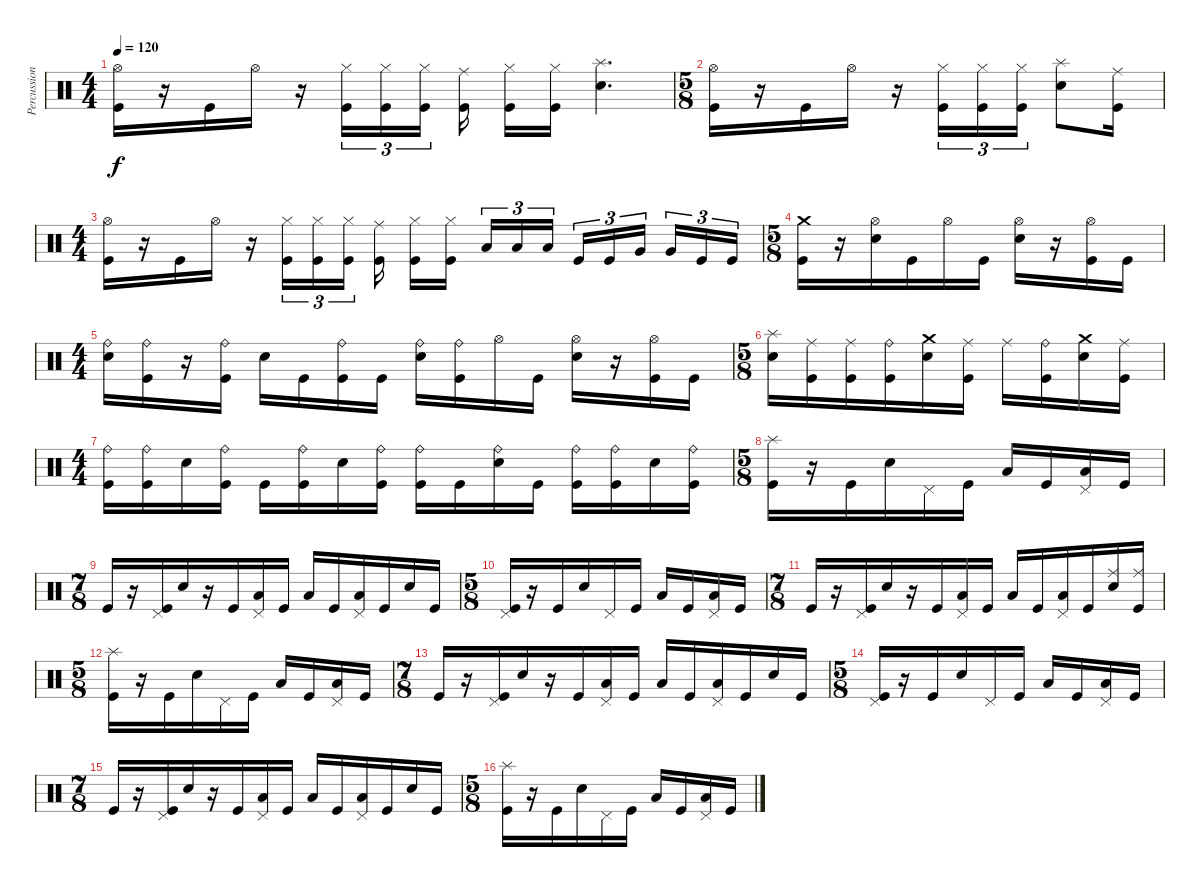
\track ("Percussion" "Percussion") {instrument percussion}
\staff {score}
\articulation defaults
\ts (4 4)
\tempo 120
\clef neutral
\ks c
("Hi-Hat (open)" "Kick (hit)").16{dy f} r.16 "Kick (hit)".16 "Hi-Hat (open)".16 r.16 ("Hi-Hat (closed)" "Kick (hit)").16{tu (3 2)} ("Hi-Hat (closed)" "Kick (hit)").16{tu (3 2)} ("Hi-Hat (closed)" "Kick (hit)").16{tu (3 2) beam splitsecondary} ("Ride (middle)" "Kick (hit)").16 ("Hi-Hat (closed)" "Kick (hit)").16 ("Hi-Hat (closed)" "Kick (hit)").16 ("Splash (hit)" "Electric Snare (hit)").4{d} |
\ts (5 8)
("Hi-Hat (open)" "Kick (hit)").16 r.16 "Kick (hit)".16 "Hi-Hat (open)".16 r.16 ("Hi-Hat (closed)" "Kick (hit)").16{tu (3 2)} ("Hi-Hat (closed)" "Kick (hit)").16{tu (3 2)} ("Hi-Hat (closed)" "Kick (hit)").16{tu (3 2)} ("Splash (hit)" "Electric Snare (hit)").8 ("Ride (middle)" "Kick (hit)").16 |
\ts (4 4)
("Hi-Hat (open)" "Kick (hit)").16 r.16 "Kick (hit)".16 "Hi-Hat (open)".16 r.16 ("Hi-Hat (closed)" "Kick (hit)").16{tu (3 2)} ("Hi-Hat (closed)" "Kick (hit)").16{tu (3 2)} ("Hi-Hat (closed)" "Kick (hit)").16{tu (3 2) beam splitsecondary} ("Ride (middle)" "Kick (hit)").16 ("Hi-Hat (closed)" "Kick (hit)").16 ("Hi-Hat (closed)" "Kick (hit)").16{beam splitsecondary} "Low Tom (hit)".16{tu (3 2)} "Low Tom (hit)".16{tu (3 2)} "Low Tom (hit)".16{tu (3 2)} "Kick (hit)".16{tu (3 2)} "Kick (hit)".16{tu (3 2)} "Very Low Tom (hit)".16{tu (3 2) beam splitsecondary} "Very Low Tom (hit)".16{tu (3 2)} "Kick (hit)".16{tu (3 2)} "Kick (hit)".16{tu (3 2)} |
\ts (5 8)
("Crash medium (hit)" "Kick (hit)").16 r.16 ("Hi-Hat (open)" "Electric Snare (hit)").16 "Kick (hit)".16 "Hi-Hat (open)".16 "Kick (hit)".16 ("Hi-Hat (open)" "Electric Snare (hit)").16 r.16 ("Hi-Hat (open)" "Kick (hit)").16 "Kick (hit)".16 |
\ts (4 4)
("Ride (bell)" "Electric Snare (hit)").16 ("Ride (bell)" "Kick (hit)").16 r.16 ("Ride (bell)" "Kick (hit)").16 "Electric Snare (hit)".16 "Kick (hit)".16 ("Ride (bell)" "Kick (hit)").16 "Kick (hit)".16 ("Ride (bell)" "Electric Snare (hit)").16 ("Ride (bell)" "Kick (hit)").16 "Hi-Hat (open)".16 "Kick (hit)".16 ("Hi-Hat (open)" "Electric Snare (hit)").16 r.16 ("Hi-Hat (open)" "Kick (hit)").16 "Kick (hit)".16 |
\ts (5 8)
("Splash (hit)" "Electric Snare (hit)").16 ("Ride (middle)" "Kick (hit)").16 ("Ride (middle)" "Kick (hit)").16 ("Ride (bell)" "Kick (hit)").16 ("Crash medium (hit)" "Electric Snare (hit)").16 ("Ride (middle)" "Kick (hit)").16 "Ride (middle)".16 ("Ride (bell)" "Kick (hit)").16 ("Crash medium (hit)" "Electric Snare (hit)").16 ("Ride (middle)" "Kick (hit)").16 |
\ts (4 4)
("Ride (bell)" "Kick (hit)").16 ("Ride (bell)" "Kick (hit)").16 "Electric Snare (hit)".16 ("Ride (bell)" "Kick (hit)").16 "Kick (hit)".16 ("Ride (bell)" "Kick (hit)").16 "Electric Snare (hit)".16 ("Ride (bell)" "Kick (hit)").16 ("Ride (bell)" "Kick (hit)").16 "Kick (hit)".16 ("Ride (bell)" "Electric Snare (hit)").16 "Kick (hit)".16 ("Ride (bell)" "Kick (hit)").16 ("Ride (bell)" "Kick (hit)").16 "Electric Snare (hit)".16 ("Ride (bell)" "Kick (hit)").16 |
\ts (5 8)
("Splash (hit)" "Kick (hit)").16 r.16 "Kick (hit)".16 "Electric Snare (hit)".16 "Pedal Hi-Hat (hit)".16 "Kick (hit)".16 "Low Tom (hit)".16 "Kick (hit)".16 ("Pedal Hi-Hat (hit)" "Low Tom (hit)").16 "Kick (hit)".16 |
\ts (7 8)
"Kick (hit)".16 r.16 ("Pedal Hi-Hat (hit)" "Kick (hit)").16 "Electric Snare (hit)".16 r.16 "Kick (hit)".16 ("Pedal Hi-Hat (hit)" "Low Tom (hit)").16 "Kick (hit)".16 "Low Tom (hit)".16 "Kick (hit)".16 ("Pedal Hi-Hat (hit)" "Low Tom (hit)").16 "Kick (hit)".16 "Electric Snare (hit)".16 "Kick (hit)".16 |
\ts (5 8)
("Pedal Hi-Hat (hit)" "Kick (hit)").16 r.16 "Kick (hit)".16 "Electric Snare (hit)".16 "Pedal Hi-Hat (hit)".16 "Kick (hit)".16 "Low Tom (hit)".16 "Kick (hit)".16 ("Pedal Hi-Hat (hit)" "Low Tom (hit)").16 "Kick (hit)".16 |
\ts (7 8)
"Kick (hit)".16 r.16 ("Pedal Hi-Hat (hit)" "Kick (hit)").16 "Electric Snare (hit)".16 r.16 "Kick (hit)".16 ("Pedal Hi-Hat (hit)" "Low Tom (hit)").16 "Kick (hit)".16 "Low Tom (hit)".16 "Kick (hit)".16 ("Pedal Hi-Hat (hit)" "Low Tom (hit)").16 "Kick (hit)".16 ("Ride (middle)" "Electric Snare (hit)").16 ("Ride (middle)" "Kick (hit)").16 |
\ts (5 8)
("Splash (hit)" "Kick (hit)").16 r.16 "Kick (hit)".16 "Electric Snare (hit)".16 "Pedal Hi-Hat (hit)".16 "Kick (hit)".16 "Low Tom (hit)".16 "Kick (hit)".16 ("Pedal Hi-Hat (hit)" "Low Tom (hit)").16 "Kick (hit)".16 |
\ts (7 8)
"Kick (hit)".16 r.16 ("Pedal Hi-Hat (hit)" "Kick (hit)").16 "Electric Snare (hit)".16 r.16 "Kick (hit)".16 ("Pedal Hi-Hat (hit)" "Low Tom (hit)").16 "Kick (hit)".16 "Low Tom (hit)".16 "Kick (hit)".16 ("Pedal Hi-Hat (hit)" "Low Tom (hit)").16 "Kick (hit)".16 "Electric Snare (hit)".16 "Kick (hit)".16 |
\ts (5 8)
("Pedal Hi-Hat (hit)" "Kick (hit)").16 r.16 "Kick (hit)".16 "Electric Snare (hit)".16 "Pedal Hi-Hat (hit)".16 "Kick (hit)".16 "Low Tom (hit)".16 "Kick (hit)".16 ("Pedal Hi-Hat (hit)" "Low Tom (hit)").16 "Kick (hit)".16 |
\ts (7 8)
"Kick (hit)".16 r.16 ("Pedal Hi-Hat (hit)" "Kick (hit)").16 "Electric Snare (hit)".16 r.16 "Kick (hit)".16 ("Pedal Hi-Hat (hit)" "Low Tom (hit)").16 "Kick (hit)".16 "Low Tom (hit)".16 "Kick (hit)".16 ("Pedal Hi-Hat (hit)" "Low Tom (hit)").16 "Kick (hit)".16 "Electric Snare (hit)".16 "Kick (hit)".16 |
\ts (5 8)
("Splash (hit)" "Kick (hit)").16 r.16 "Kick (hit)".16 "Electric Snare (hit)".16 "Pedal Hi-Hat (hit)".16 "Kick (hit)".16 "Low Tom (hit)".16 "Kick (hit)".16 ("Pedal Hi-Hat (hit)" "Low Tom (hit)").16 "Kick (hit)".16
